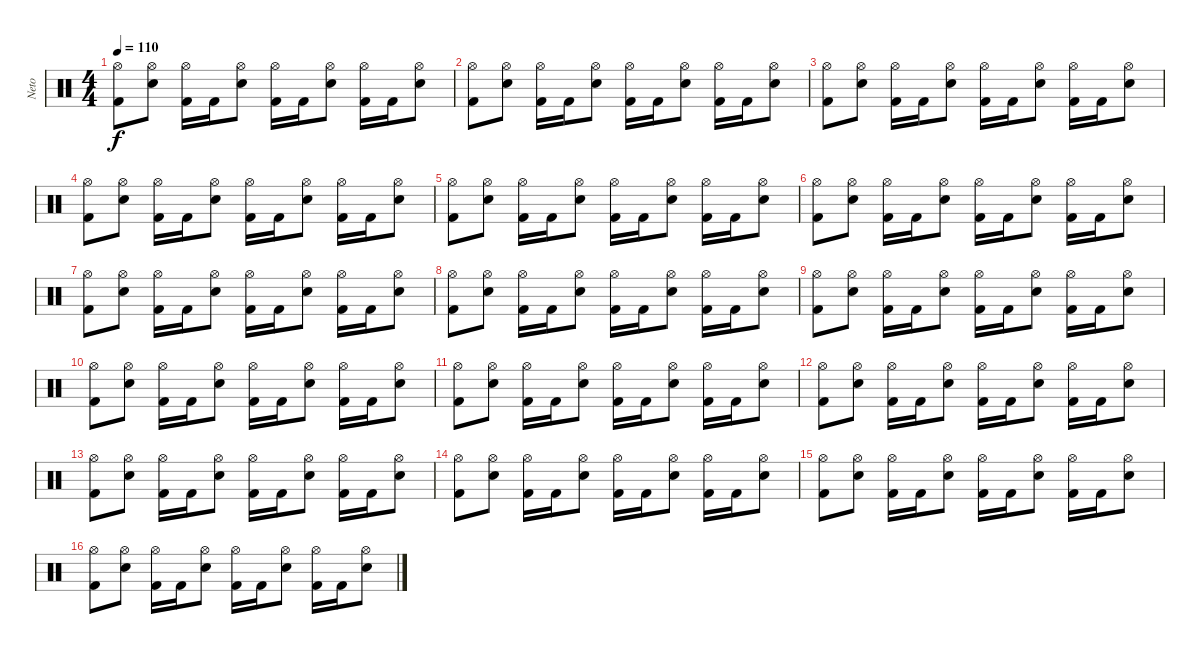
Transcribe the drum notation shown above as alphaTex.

\track ("Neto" "Neto") {instrument percussion}
\staff {score}
\articulation defaults
\ts (4 4)
\tempo 110
\clef neutral
\ks c
("Hi-Hat (open)" "Kick (hit) 2").8{dy f} ("Hi-Hat (open)" "Electric Snare (hit)").8 ("Hi-Hat (open)" "Kick (hit) 2").16 "Kick (hit) 2".16 ("Hi-Hat (open)" "Electric Snare (hit)").8 ("Hi-Hat (open)" "Kick (hit) 2").16 "Kick (hit) 2".16 ("Hi-Hat (open)" "Electric Snare (hit)").8 ("Hi-Hat (open)" "Kick (hit) 2").16 "Kick (hit) 2".16 ("Hi-Hat (open)" "Electric Snare (hit)").8 |
("Hi-Hat (open)" "Kick (hit) 2").8 ("Hi-Hat (open)" "Electric Snare (hit)").8 ("Hi-Hat (open)" "Kick (hit) 2").16 "Kick (hit) 2".16 ("Hi-Hat (open)" "Electric Snare (hit)").8 ("Hi-Hat (open)" "Kick (hit) 2").16 "Kick (hit) 2".16 ("Hi-Hat (open)" "Electric Snare (hit)").8 ("Hi-Hat (open)" "Kick (hit) 2").16 "Kick (hit) 2".16 ("Hi-Hat (open)" "Electric Snare (hit)").8 |
("Hi-Hat (open)" "Kick (hit) 2").8 ("Hi-Hat (open)" "Electric Snare (hit)").8 ("Hi-Hat (open)" "Kick (hit) 2").16 "Kick (hit) 2".16 ("Hi-Hat (open)" "Electric Snare (hit)").8 ("Hi-Hat (open)" "Kick (hit) 2").16 "Kick (hit) 2".16 ("Hi-Hat (open)" "Electric Snare (hit)").8 ("Hi-Hat (open)" "Kick (hit) 2").16 "Kick (hit) 2".16 ("Hi-Hat (open)" "Electric Snare (hit)").8 |
("Hi-Hat (open)" "Kick (hit) 2").8 ("Hi-Hat (open)" "Electric Snare (hit)").8 ("Hi-Hat (open)" "Kick (hit) 2").16 "Kick (hit) 2".16 ("Hi-Hat (open)" "Electric Snare (hit)").8 ("Hi-Hat (open)" "Kick (hit) 2").16 "Kick (hit) 2".16 ("Hi-Hat (open)" "Electric Snare (hit)").8 ("Hi-Hat (open)" "Kick (hit) 2").16 "Kick (hit) 2".16 ("Hi-Hat (open)" "Electric Snare (hit)").8 |
("Hi-Hat (open)" "Kick (hit) 2").8 ("Hi-Hat (open)" "Electric Snare (hit)").8 ("Hi-Hat (open)" "Kick (hit) 2").16 "Kick (hit) 2".16 ("Hi-Hat (open)" "Electric Snare (hit)").8 ("Hi-Hat (open)" "Kick (hit) 2").16 "Kick (hit) 2".16 ("Hi-Hat (open)" "Electric Snare (hit)").8 ("Hi-Hat (open)" "Kick (hit) 2").16 "Kick (hit) 2".16 ("Hi-Hat (open)" "Electric Snare (hit)").8 |
("Hi-Hat (open)" "Kick (hit) 2").8 ("Hi-Hat (open)" "Electric Snare (hit)").8 ("Hi-Hat (open)" "Kick (hit) 2").16 "Kick (hit) 2".16 ("Hi-Hat (open)" "Electric Snare (hit)").8 ("Hi-Hat (open)" "Kick (hit) 2").16 "Kick (hit) 2".16 ("Hi-Hat (open)" "Electric Snare (hit)").8 ("Hi-Hat (open)" "Kick (hit) 2").16 "Kick (hit) 2".16 ("Hi-Hat (open)" "Electric Snare (hit)").8 |
("Hi-Hat (open)" "Kick (hit) 2").8 ("Hi-Hat (open)" "Electric Snare (hit)").8 ("Hi-Hat (open)" "Kick (hit) 2").16 "Kick (hit) 2".16 ("Hi-Hat (open)" "Electric Snare (hit)").8 ("Hi-Hat (open)" "Kick (hit) 2").16 "Kick (hit) 2".16 ("Hi-Hat (open)" "Electric Snare (hit)").8 ("Hi-Hat (open)" "Kick (hit) 2").16 "Kick (hit) 2".16 ("Hi-Hat (open)" "Electric Snare (hit)").8 |
("Hi-Hat (open)" "Kick (hit) 2").8 ("Hi-Hat (open)" "Electric Snare (hit)").8 ("Hi-Hat (open)" "Kick (hit) 2").16 "Kick (hit) 2".16 ("Hi-Hat (open)" "Electric Snare (hit)").8 ("Hi-Hat (open)" "Kick (hit) 2").16 "Kick (hit) 2".16 ("Hi-Hat (open)" "Electric Snare (hit)").8 ("Hi-Hat (open)" "Kick (hit) 2").16 "Kick (hit) 2".16 ("Hi-Hat (open)" "Electric Snare (hit)").8 |
("Hi-Hat (open)" "Kick (hit) 2").8 ("Hi-Hat (open)" "Electric Snare (hit)").8 ("Hi-Hat (open)" "Kick (hit) 2").16 "Kick (hit) 2".16 ("Hi-Hat (open)" "Electric Snare (hit)").8 ("Hi-Hat (open)" "Kick (hit) 2").16 "Kick (hit) 2".16 ("Hi-Hat (open)" "Electric Snare (hit)").8 ("Hi-Hat (open)" "Kick (hit) 2").16 "Kick (hit) 2".16 ("Hi-Hat (open)" "Electric Snare (hit)").8 |
("Hi-Hat (open)" "Kick (hit) 2").8 ("Hi-Hat (open)" "Electric Snare (hit)").8 ("Hi-Hat (open)" "Kick (hit) 2").16 "Kick (hit) 2".16 ("Hi-Hat (open)" "Electric Snare (hit)").8 ("Hi-Hat (open)" "Kick (hit) 2").16 "Kick (hit) 2".16 ("Hi-Hat (open)" "Electric Snare (hit)").8 ("Hi-Hat (open)" "Kick (hit) 2").16 "Kick (hit) 2".16 ("Hi-Hat (open)" "Electric Snare (hit)").8 |
("Hi-Hat (open)" "Kick (hit) 2").8 ("Hi-Hat (open)" "Electric Snare (hit)").8 ("Hi-Hat (open)" "Kick (hit) 2").16 "Kick (hit) 2".16 ("Hi-Hat (open)" "Electric Snare (hit)").8 ("Hi-Hat (open)" "Kick (hit) 2").16 "Kick (hit) 2".16 ("Hi-Hat (open)" "Electric Snare (hit)").8 ("Hi-Hat (open)" "Kick (hit) 2").16 "Kick (hit) 2".16 ("Hi-Hat (open)" "Electric Snare (hit)").8 |
("Hi-Hat (open)" "Kick (hit) 2").8 ("Hi-Hat (open)" "Electric Snare (hit)").8 ("Hi-Hat (open)" "Kick (hit) 2").16 "Kick (hit) 2".16 ("Hi-Hat (open)" "Electric Snare (hit)").8 ("Hi-Hat (open)" "Kick (hit) 2").16 "Kick (hit) 2".16 ("Hi-Hat (open)" "Electric Snare (hit)").8 ("Hi-Hat (open)" "Kick (hit) 2").16 "Kick (hit) 2".16 ("Hi-Hat (open)" "Electric Snare (hit)").8 |
("Hi-Hat (open)" "Kick (hit) 2").8 ("Hi-Hat (open)" "Electric Snare (hit)").8 ("Hi-Hat (open)" "Kick (hit) 2").16 "Kick (hit) 2".16 ("Hi-Hat (open)" "Electric Snare (hit)").8 ("Hi-Hat (open)" "Kick (hit) 2").16 "Kick (hit) 2".16 ("Hi-Hat (open)" "Electric Snare (hit)").8 ("Hi-Hat (open)" "Kick (hit) 2").16 "Kick (hit) 2".16 ("Hi-Hat (open)" "Electric Snare (hit)").8 |
("Hi-Hat (open)" "Kick (hit) 2").8 ("Hi-Hat (open)" "Electric Snare (hit)").8 ("Hi-Hat (open)" "Kick (hit) 2").16 "Kick (hit) 2".16 ("Hi-Hat (open)" "Electric Snare (hit)").8 ("Hi-Hat (open)" "Kick (hit) 2").16 "Kick (hit) 2".16 ("Hi-Hat (open)" "Electric Snare (hit)").8 ("Hi-Hat (open)" "Kick (hit) 2").16 "Kick (hit) 2".16 ("Hi-Hat (open)" "Electric Snare (hit)").8 |
("Hi-Hat (open)" "Kick (hit) 2").8 ("Hi-Hat (open)" "Electric Snare (hit)").8 ("Hi-Hat (open)" "Kick (hit) 2").16 "Kick (hit) 2".16 ("Hi-Hat (open)" "Electric Snare (hit)").8 ("Hi-Hat (open)" "Kick (hit) 2").16 "Kick (hit) 2".16 ("Hi-Hat (open)" "Electric Snare (hit)").8 ("Hi-Hat (open)" "Kick (hit) 2").16 "Kick (hit) 2".16 ("Hi-Hat (open)" "Electric Snare (hit)").8 |
("Hi-Hat (open)" "Kick (hit) 2").8 ("Hi-Hat (open)" "Electric Snare (hit)").8 ("Hi-Hat (open)" "Kick (hit) 2").16 "Kick (hit) 2".16 ("Hi-Hat (open)" "Electric Snare (hit)").8 ("Hi-Hat (open)" "Kick (hit) 2").16 "Kick (hit) 2".16 ("Hi-Hat (open)" "Electric Snare (hit)").8 ("Hi-Hat (open)" "Kick (hit) 2").16 "Kick (hit) 2".16 ("Hi-Hat (open)" "Electric Snare (hit)").8
